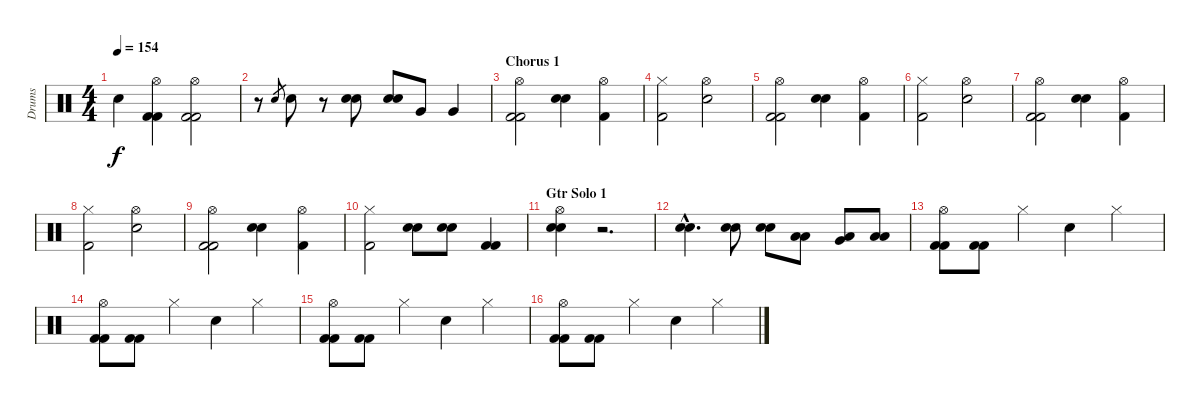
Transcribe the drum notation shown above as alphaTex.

\track ("Drums" "Drums") {instrument percussion}
\staff {score}
\articulation defaults
\ts (4 4)
\tempo 154
\clef neutral
\ks c "Snare (hit) 2".4{dy f}
("Hi-Hat (open)" "Kick (hit) 2" "Kick (hit) 2").4 ("Hi-Hat (open)" "Kick (hit) 2" "Kick (hit) 2").2 |
r.8 "Snare (hit) 2".8{gr} "Snare (hit) 2".8 r.8 ("Snare (hit) 2" "Snare (hit) 2").8 ("Snare (hit) 2" "Snare (hit) 2").8 "Very Low Tom (hit)".8 "Very Low Tom (hit)".4 |
\section ("" "Chorus 1")
("Hi-Hat (open)" "Kick (hit) 2" "Kick (hit) 2").2 ("Snare (hit) 2" "Snare (hit) 2").4 ("Hi-Hat (open)" "Kick (hit) 2").4 |
("Hi-Hat (closed)" "Kick (hit) 2").2 ("Hi-Hat (open)" "Snare (hit) 2").2 |
("Hi-Hat (open)" "Kick (hit) 2" "Kick (hit) 2").2 ("Snare (hit) 2" "Snare (hit) 2").4 ("Hi-Hat (open)" "Kick (hit) 2").4 |
("Hi-Hat (closed)" "Kick (hit) 2").2 ("Hi-Hat (open)" "Snare (hit) 2").2 |
("Hi-Hat (open)" "Kick (hit) 2" "Kick (hit) 2").2 ("Snare (hit) 2" "Snare (hit) 2").4 ("Hi-Hat (open)" "Kick (hit) 2").4 |
("Hi-Hat (closed)" "Kick (hit) 2").2 ("Hi-Hat (open)" "Snare (hit) 2").2 |
("Hi-Hat (open)" "Kick (hit) 2" "Kick (hit) 2").2 ("Snare (hit) 2" "Snare (hit) 2").4 ("Hi-Hat (open)" "Kick (hit) 2").4 |
("Hi-Hat (closed)" "Kick (hit) 2").2 ("Snare (hit) 2" "Snare (hit) 2").8 ("Snare (hit) 2" "Snare (hit) 2").8 ("Kick (hit) 2" "Kick (hit) 2").4 |
\section ("" "Gtr Solo 1")
("Hi-Hat (open)" "Snare (hit) 2" "Snare (hit) 2").4 r.2{d} |
("Snare (hit) 2"{hac} "Snare (hit) 2"{hac}).4{d} ("Snare (hit) 2" "Snare (hit) 2").8 ("Snare (hit) 2" "Snare (hit) 2").8 ("Low Tom (hit)" "Low Tom (hit)").8 ("Low Floor Tom (hit)" "Very Low Tom (hit)").8 ("Low Floor Tom (hit)" "Low Floor Tom (hit)").8 |
("Hi-Hat (open)" "Kick (hit) 2" "Kick (hit) 2").8 ("Kick (hit) 2" "Kick (hit) 2").8 "Hi-Hat (closed)".4 "Snare (hit) 2".4 "Hi-Hat (closed)".4 |
("Hi-Hat (open)" "Kick (hit) 2" "Kick (hit) 2").8 ("Kick (hit) 2" "Kick (hit) 2").8 "Hi-Hat (closed)".4 "Snare (hit) 2".4 "Hi-Hat (closed)".4 |
("Hi-Hat (open)" "Kick (hit) 2" "Kick (hit) 2").8 ("Kick (hit) 2" "Kick (hit) 2").8 "Hi-Hat (closed)".4 "Snare (hit) 2".4 "Hi-Hat (closed)".4 |
("Hi-Hat (open)" "Kick (hit) 2" "Kick (hit) 2").8 ("Kick (hit) 2" "Kick (hit) 2").8 "Hi-Hat (closed)".4 "Snare (hit) 2".4 "Hi-Hat (closed)".4
